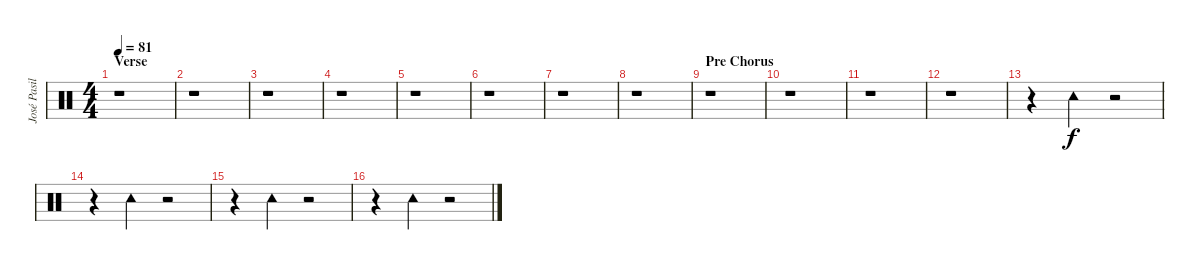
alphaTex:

\track ("José Pasillas [Drums]" "José Pasil") {instrument percussion}
\staff {score}
\articulation defaults
\ts (4 4)
\section ("" "Verse")
\tempo 81
\clef neutral
\ks c
r.1{dy f} |
r.1 |
r.1 |
r.1 |
r.1 |
r.1 |
r.1 |
r.1 |
\section ("" "Pre Chorus")
r.1 |
r.1 |
r.1 |
r.1 |
r.4 "Tambourine (hit)".4 r.2 |
r.4 "Tambourine (hit)".4 r.2 |
r.4 "Tambourine (hit)".4 r.2 |
r.4 "Tambourine (hit)".4 r.2
